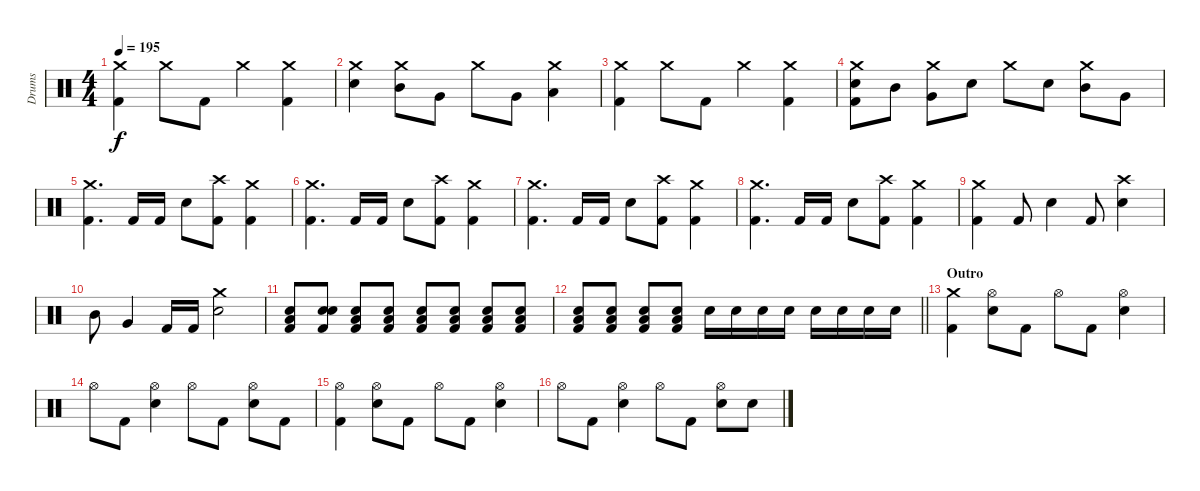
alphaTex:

\track ("Drums" "Drums") {instrument percussion}
\staff {score}
\articulation defaults
\ts (4 4)
\tempo 195
\clef neutral
\ks c
("Crash medium (hit)" "Kick (hit) 2").4{dy f} "Crash medium (hit)".8 "Kick (hit) 2".8 "Crash medium (hit)".4 ("Crash medium (hit)" "Kick (hit) 2").4 |
("Crash medium (hit)" "Snare (hit) 2").4 ("Crash medium (hit)" "Mid Tom (hit)").8 "Very Low Tom (hit)".8 "Crash medium (hit)".8 "Very Low Tom (hit)".8 ("Crash medium (hit)" "Low Floor Tom (hit)").4 |
("Crash medium (hit)" "Kick (hit) 2").4 "Crash medium (hit)".8 "Kick (hit) 2".8 "Crash medium (hit)".4 ("Crash medium (hit)" "Kick (hit) 2").4 |
("Crash medium (hit)" "Snare (hit) 2" "Kick (hit) 2").8 "Mid Tom (hit)".8 ("Crash medium (hit)" "Very Low Tom (hit)").8 "Snare (hit) 2".8 "Crash medium (hit)".8 "Snare (hit) 2".8 ("Crash medium (hit)" "Mid Tom (hit)").8 "Very Low Tom (hit)".8 |
("Crash medium (hit)" "Kick (hit) 2").4{d} "Kick (hit) 2".16 "Kick (hit) 2".16 "Snare (hit) 2".8 ("Crash high (hit)" "Kick (hit) 2").8 ("Crash medium (hit)" "Kick (hit) 2").4 |
("Crash medium (hit)" "Kick (hit) 2").4{d} "Kick (hit) 2".16 "Kick (hit) 2".16 "Snare (hit) 2".8 ("Crash high (hit)" "Kick (hit) 2").8 ("Crash medium (hit)" "Kick (hit) 2").4 |
("Crash medium (hit)" "Kick (hit) 2").4{d} "Kick (hit) 2".16 "Kick (hit) 2".16 "Snare (hit) 2".8 ("Crash high (hit)" "Kick (hit) 2").8 ("Crash medium (hit)" "Kick (hit) 2").4 |
("Crash medium (hit)" "Kick (hit) 2").4{d} "Kick (hit) 2".16 "Kick (hit) 2".16 "Snare (hit) 2".8 ("Crash high (hit)" "Kick (hit) 2").8 ("Crash medium (hit)" "Kick (hit) 2").4 |
("Crash medium (hit)" "Kick (hit) 2").4 "Kick (hit) 2".8 "Snare (hit) 2".4 "Kick (hit) 2".8 ("Crash high (hit)" "Snare (hit) 2").4 |
"Mid Tom (hit)".8 "Very Low Tom (hit)".4 "Kick (hit) 2".16 "Kick (hit) 2".16 ("Crash medium (hit)" "Snare (hit) 2").2 |
("Snare (hit) 2" "Low Floor Tom (hit)" "Kick (hit) 2").8{volume 6} ("Snare (hit) 2" "Snare (hit)" "Kick (hit) 2").8{volume 14} ("Snare (hit) 2" "Low Floor Tom (hit)" "Kick (hit) 2").8 ("Snare (hit) 2" "Low Floor Tom (hit)" "Kick (hit) 2").8 ("Snare (hit) 2" "Low Floor Tom (hit)" "Kick (hit) 2").8 ("Snare (hit) 2" "Low Floor Tom (hit)" "Kick (hit) 2").8 ("Snare (hit) 2" "Low Floor Tom (hit)" "Kick (hit) 2").8 ("Snare (hit) 2" "Low Floor Tom (hit)" "Kick (hit) 2").8 |
\barLineRight lightlight
("Snare (hit) 2" "Low Floor Tom (hit)" "Kick (hit) 2").8 ("Snare (hit) 2" "Low Floor Tom (hit)" "Kick (hit) 2").8 ("Snare (hit) 2" "Low Floor Tom (hit)" "Kick (hit) 2").8 ("Snare (hit) 2" "Low Floor Tom (hit)" "Kick (hit) 2").8 "Snare (hit) 2".16 "Snare (hit) 2".16 "Snare (hit) 2".16 "Snare (hit) 2".16 "Snare (hit) 2".16 "Snare (hit) 2".16 "Snare (hit) 2".16 "Snare (hit) 2".16 |
\section ("" "Outro")
("Crash medium (hit)" "Kick (hit) 2").4 ("Hi-Hat (open)" "Snare (hit) 2").8 "Kick (hit) 2".8 "Hi-Hat (open)".8 "Kick (hit) 2".8 ("Hi-Hat (open)" "Snare (hit) 2").4 |
"Hi-Hat (open)".8 "Kick (hit) 2".8 ("Hi-Hat (open)" "Snare (hit) 2").4 "Hi-Hat (open)".8 "Kick (hit) 2".8 ("Hi-Hat (open)" "Snare (hit) 2").8 "Kick (hit) 2".8 |
("Hi-Hat (open)" "Kick (hit) 2").4 ("Hi-Hat (open)" "Snare (hit) 2").8 "Kick (hit) 2".8 "Hi-Hat (open)".8 "Kick (hit) 2".8 ("Hi-Hat (open)" "Snare (hit) 2").4 |
"Hi-Hat (open)".8 "Kick (hit) 2".8 ("Hi-Hat (open)" "Snare (hit) 2").4 "Hi-Hat (open)".8 "Kick (hit) 2".8 ("Hi-Hat (open)" "Snare (hit) 2").8 "Snare (hit) 2".8
